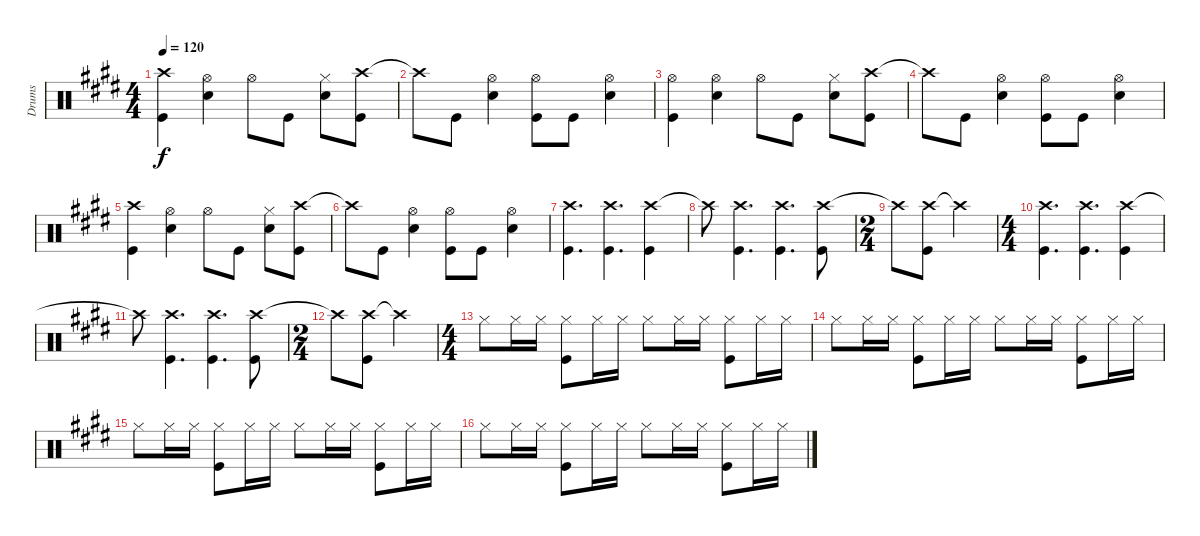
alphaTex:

\track ("Drums" "Drums") {instrument percussion}
\staff {score}
\articulation defaults
\ts (4 4)
\tempo 120
\clef neutral
\ks e
("Crash high (hit)" "Kick (hit)").4{dy f} ("Hi-Hat (open)" "Snare (hit) 2").4 "Hi-Hat (open)".8 "Kick (hit)".8 ("Hi-Hat (closed)" "Snare (hit) 2").8 ("Crash high (hit)" "Kick (hit)").8 |
"Crash high (hit)"{t}.8 "Kick (hit)".8 ("Hi-Hat (open)" "Snare (hit) 2").4 ("Hi-Hat (open)" "Kick (hit)").8 "Kick (hit)".8 ("Hi-Hat (open)" "Snare (hit) 2").4 |
("Hi-Hat (open)" "Kick (hit)").4 ("Hi-Hat (open)" "Snare (hit) 2").4 "Hi-Hat (open)".8 "Kick (hit)".8 ("Hi-Hat (closed)" "Snare (hit) 2").8 ("Crash high (hit)" "Kick (hit)").8 |
"Crash high (hit)"{t}.8 "Kick (hit)".8 ("Hi-Hat (open)" "Snare (hit) 2").4 ("Hi-Hat (open)" "Kick (hit)").8 "Kick (hit)".8 ("Hi-Hat (open)" "Snare (hit) 2").4 |
("Crash high (hit)" "Kick (hit)").4 ("Hi-Hat (open)" "Snare (hit) 2").4 "Hi-Hat (open)".8 "Kick (hit)".8 ("Hi-Hat (closed)" "Snare (hit) 2").8 ("Crash high (hit)" "Kick (hit)").8 |
"Crash high (hit)"{t}.8 "Kick (hit)".8 ("Hi-Hat (open)" "Snare (hit) 2").4 ("Hi-Hat (open)" "Kick (hit)").8 "Kick (hit)".8 ("Hi-Hat (open)" "Snare (hit) 2").4 |
("Crash high (hit)" "Kick (hit)").4{d} ("Crash high (hit)" "Kick (hit)").4{d} ("Crash high (hit)" "Kick (hit)").4 |
"Crash high (hit)"{t}.8 ("Crash high (hit)" "Kick (hit)").4{d} ("Crash high (hit)" "Kick (hit)").4{d} ("Crash high (hit)" "Kick (hit)").8 |
\ts (2 4)
"Crash high (hit)"{t}.8 ("Crash high (hit)" "Kick (hit)").8 "Crash high (hit)"{t}.4 |
\ts (4 4)
("Crash high (hit)" "Kick (hit)").4{d} ("Crash high (hit)" "Kick (hit)").4{d} ("Crash high (hit)" "Kick (hit)").4 |
"Crash high (hit)"{t}.8 ("Crash high (hit)" "Kick (hit)").4{d} ("Crash high (hit)" "Kick (hit)").4{d} ("Crash high (hit)" "Kick (hit)").8 |
\ts (2 4)
"Crash high (hit)"{t}.8 ("Crash high (hit)" "Kick (hit)").8 "Crash high (hit)"{t}.4 |
\ts (4 4)
"Hi-Hat (closed)".8 "Hi-Hat (closed)".16 "Hi-Hat (closed)".16 ("Hi-Hat (closed)" "Kick (hit)").8 "Hi-Hat (closed)".16 "Hi-Hat (closed)".16 "Hi-Hat (closed)".8 "Hi-Hat (closed)".16 "Hi-Hat (closed)".16 ("Hi-Hat (closed)" "Kick (hit)").8 "Hi-Hat (closed)".16 "Hi-Hat (closed)".16 |
"Hi-Hat (closed)".8 "Hi-Hat (closed)".16 "Hi-Hat (closed)".16 ("Hi-Hat (closed)" "Kick (hit)").8 "Hi-Hat (closed)".16 "Hi-Hat (closed)".16 "Hi-Hat (closed)".8 "Hi-Hat (closed)".16 "Hi-Hat (closed)".16 ("Hi-Hat (closed)" "Kick (hit)").8 "Hi-Hat (closed)".16 "Hi-Hat (closed)".16 |
"Hi-Hat (closed)".8 "Hi-Hat (closed)".16 "Hi-Hat (closed)".16 ("Hi-Hat (closed)" "Kick (hit)").8 "Hi-Hat (closed)".16 "Hi-Hat (closed)".16 "Hi-Hat (closed)".8 "Hi-Hat (closed)".16 "Hi-Hat (closed)".16 ("Hi-Hat (closed)" "Kick (hit)").8 "Hi-Hat (closed)".16 "Hi-Hat (closed)".16 |
"Hi-Hat (closed)".8 "Hi-Hat (closed)".16 "Hi-Hat (closed)".16 ("Hi-Hat (closed)" "Kick (hit)").8 "Hi-Hat (closed)".16 "Hi-Hat (closed)".16 "Hi-Hat (closed)".8 "Hi-Hat (closed)".16 "Hi-Hat (closed)".16 ("Hi-Hat (closed)" "Kick (hit)").8 "Hi-Hat (closed)".16 "Hi-Hat (closed)".16
